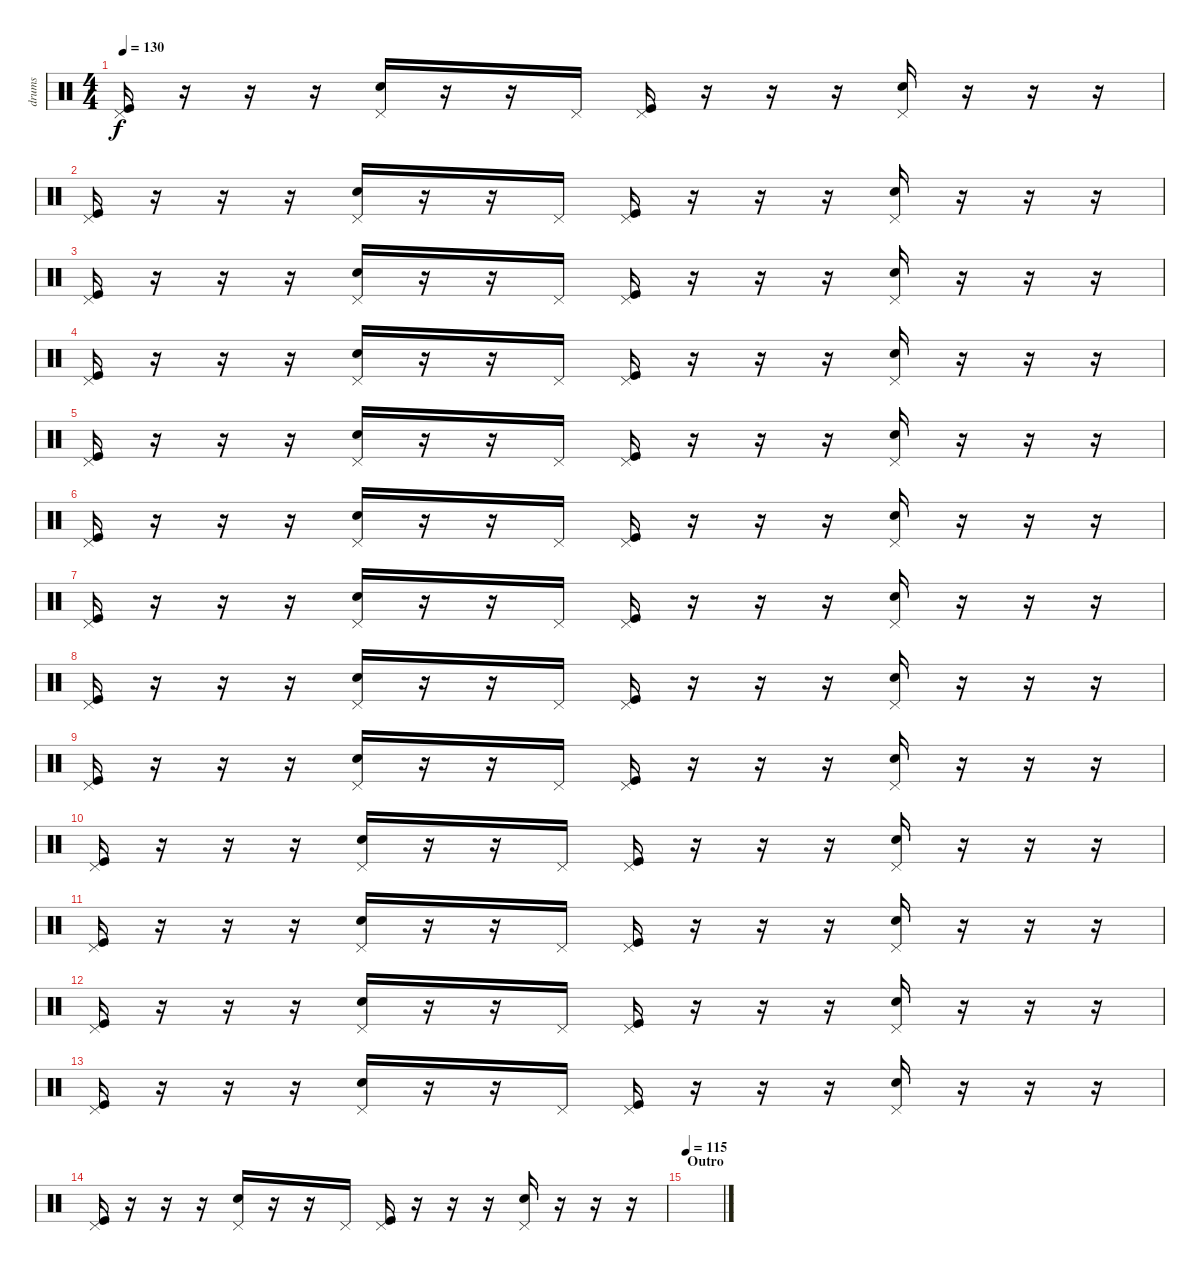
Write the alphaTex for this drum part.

\track ("drums" "drums") {instrument percussion}
\staff {score}
\articulation defaults
\ts (4 4)
\tempo 130
\clef neutral
\ks c
("Kick (hit)" "Pedal Hi-Hat (hit)").16{dy f} r.16 r.16 r.16 ("Electric Snare (hit)" "Pedal Hi-Hat (hit)").16 r.16 r.16 "Pedal Hi-Hat (hit)".16 ("Kick (hit)" "Pedal Hi-Hat (hit)").16 r.16 r.16 r.16 ("Electric Snare (hit)" "Pedal Hi-Hat (hit)").16 r.16 r.16 r.16 |
("Kick (hit)" "Pedal Hi-Hat (hit)").16 r.16 r.16 r.16 ("Electric Snare (hit)" "Pedal Hi-Hat (hit)").16 r.16 r.16 "Pedal Hi-Hat (hit)".16 ("Kick (hit)" "Pedal Hi-Hat (hit)").16 r.16 r.16 r.16 ("Electric Snare (hit)" "Pedal Hi-Hat (hit)").16 r.16 r.16 r.16 |
("Kick (hit)" "Pedal Hi-Hat (hit)").16 r.16 r.16 r.16 ("Electric Snare (hit)" "Pedal Hi-Hat (hit)").16 r.16 r.16 "Pedal Hi-Hat (hit)".16 ("Kick (hit)" "Pedal Hi-Hat (hit)").16 r.16 r.16 r.16 ("Electric Snare (hit)" "Pedal Hi-Hat (hit)").16 r.16 r.16 r.16 |
("Kick (hit)" "Pedal Hi-Hat (hit)").16 r.16 r.16 r.16 ("Electric Snare (hit)" "Pedal Hi-Hat (hit)").16 r.16 r.16 "Pedal Hi-Hat (hit)".16 ("Kick (hit)" "Pedal Hi-Hat (hit)").16 r.16 r.16 r.16 ("Electric Snare (hit)" "Pedal Hi-Hat (hit)").16 r.16 r.16 r.16 |
("Kick (hit)" "Pedal Hi-Hat (hit)").16 r.16 r.16 r.16 ("Electric Snare (hit)" "Pedal Hi-Hat (hit)").16 r.16 r.16 "Pedal Hi-Hat (hit)".16 ("Kick (hit)" "Pedal Hi-Hat (hit)").16 r.16 r.16 r.16 ("Electric Snare (hit)" "Pedal Hi-Hat (hit)").16 r.16 r.16 r.16 |
("Kick (hit)" "Pedal Hi-Hat (hit)").16 r.16 r.16 r.16 ("Electric Snare (hit)" "Pedal Hi-Hat (hit)").16 r.16 r.16 "Pedal Hi-Hat (hit)".16 ("Kick (hit)" "Pedal Hi-Hat (hit)").16 r.16 r.16 r.16 ("Electric Snare (hit)" "Pedal Hi-Hat (hit)").16 r.16 r.16 r.16 |
("Kick (hit)" "Pedal Hi-Hat (hit)").16 r.16 r.16 r.16 ("Electric Snare (hit)" "Pedal Hi-Hat (hit)").16 r.16 r.16 "Pedal Hi-Hat (hit)".16 ("Kick (hit)" "Pedal Hi-Hat (hit)").16 r.16 r.16 r.16 ("Electric Snare (hit)" "Pedal Hi-Hat (hit)").16 r.16 r.16 r.16 |
("Kick (hit)" "Pedal Hi-Hat (hit)").16 r.16 r.16 r.16 ("Electric Snare (hit)" "Pedal Hi-Hat (hit)").16 r.16 r.16 "Pedal Hi-Hat (hit)".16 ("Kick (hit)" "Pedal Hi-Hat (hit)").16 r.16 r.16 r.16 ("Electric Snare (hit)" "Pedal Hi-Hat (hit)").16 r.16 r.16 r.16 |
("Kick (hit)" "Pedal Hi-Hat (hit)").16 r.16 r.16 r.16 ("Electric Snare (hit)" "Pedal Hi-Hat (hit)").16 r.16 r.16 "Pedal Hi-Hat (hit)".16 ("Kick (hit)" "Pedal Hi-Hat (hit)").16 r.16 r.16 r.16 ("Electric Snare (hit)" "Pedal Hi-Hat (hit)").16 r.16 r.16 r.16 |
("Kick (hit)" "Pedal Hi-Hat (hit)").16 r.16 r.16 r.16 ("Electric Snare (hit)" "Pedal Hi-Hat (hit)").16 r.16 r.16 "Pedal Hi-Hat (hit)".16 ("Kick (hit)" "Pedal Hi-Hat (hit)").16 r.16 r.16 r.16 ("Electric Snare (hit)" "Pedal Hi-Hat (hit)").16 r.16 r.16 r.16 |
("Kick (hit)" "Pedal Hi-Hat (hit)").16 r.16 r.16 r.16 ("Electric Snare (hit)" "Pedal Hi-Hat (hit)").16 r.16 r.16 "Pedal Hi-Hat (hit)".16 ("Kick (hit)" "Pedal Hi-Hat (hit)").16 r.16 r.16 r.16 ("Electric Snare (hit)" "Pedal Hi-Hat (hit)").16 r.16 r.16 r.16 |
("Kick (hit)" "Pedal Hi-Hat (hit)").16 r.16 r.16 r.16 ("Electric Snare (hit)" "Pedal Hi-Hat (hit)").16 r.16 r.16 "Pedal Hi-Hat (hit)".16 ("Kick (hit)" "Pedal Hi-Hat (hit)").16 r.16 r.16 r.16 ("Electric Snare (hit)" "Pedal Hi-Hat (hit)").16 r.16 r.16 r.16 |
("Kick (hit)" "Pedal Hi-Hat (hit)").16 r.16 r.16 r.16 ("Electric Snare (hit)" "Pedal Hi-Hat (hit)").16 r.16 r.16 "Pedal Hi-Hat (hit)".16 ("Kick (hit)" "Pedal Hi-Hat (hit)").16 r.16 r.16 r.16 ("Electric Snare (hit)" "Pedal Hi-Hat (hit)").16 r.16 r.16 r.16 |
("Kick (hit)" "Pedal Hi-Hat (hit)").16 r.16 r.16 r.16 ("Electric Snare (hit)" "Pedal Hi-Hat (hit)").16 r.16 r.16 "Pedal Hi-Hat (hit)".16 ("Kick (hit)" "Pedal Hi-Hat (hit)").16 r.16 r.16 r.16 ("Electric Snare (hit)" "Pedal Hi-Hat (hit)").16 r.16 r.16 r.16 |
\section ("" "Outro")
\tempo 115
